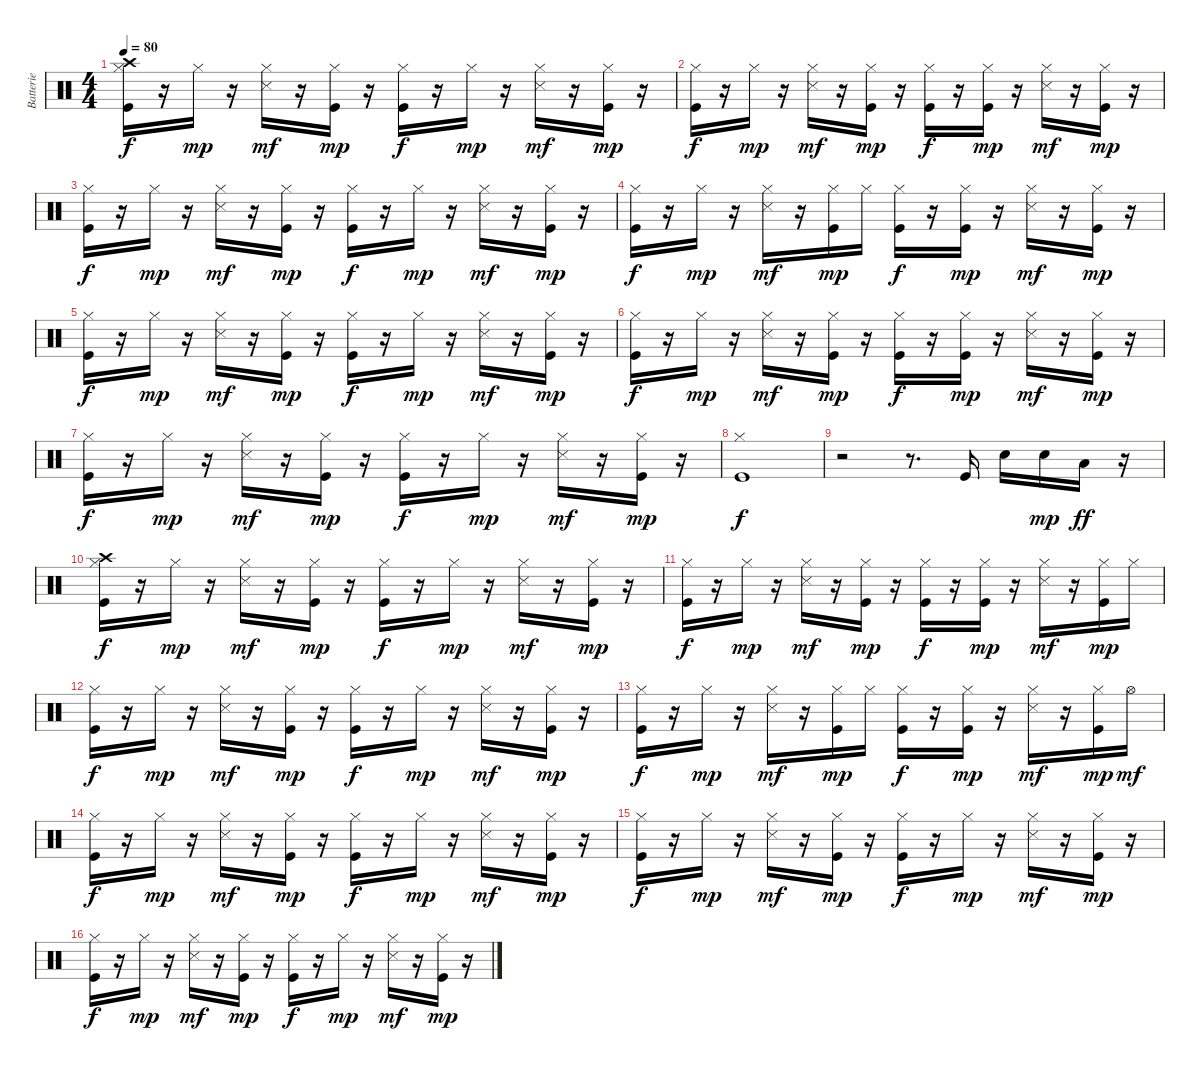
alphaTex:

\track ("Batterie" "Batterie") {instrument percussion}
\staff {score}
\articulation defaults
\ts (4 4)
\tempo 80
\clef neutral
\ks c
("Kick (hit)" "Hi-Hat (closed)" "Crash high (hit)").16{dy f} r.16 "Hi-Hat (closed)".16{dy mp} r.16 ("Hi-Hat (closed)" "Snare (side stick) 3").16{dy mf} r.16 ("Kick (hit)" "Hi-Hat (closed)").16{dy mp} r.16 ("Kick (hit)" "Hi-Hat (closed)").16{dy f} r.16 "Hi-Hat (closed)".16{dy mp} r.16 ("Hi-Hat (closed)" "Snare (side stick) 3").16{dy mf} r.16 ("Kick (hit)" "Hi-Hat (closed)").16{dy mp} r.16 |
("Kick (hit)" "Hi-Hat (closed)").16{dy f} r.16 "Hi-Hat (closed)".16{dy mp} r.16 ("Hi-Hat (closed)" "Snare (side stick) 3").16{dy mf} r.16 ("Kick (hit)" "Hi-Hat (closed)").16{dy mp} r.16 ("Kick (hit)" "Hi-Hat (closed)").16{dy f} r.16 ("Kick (hit)" "Hi-Hat (closed)").16{dy mp} r.16 ("Hi-Hat (closed)" "Snare (side stick) 3").16{dy mf} r.16 ("Kick (hit)" "Hi-Hat (closed)").16{dy mp} r.16 |
("Kick (hit)" "Hi-Hat (closed)").16{dy f} r.16 "Hi-Hat (closed)".16{dy mp} r.16 ("Hi-Hat (closed)" "Snare (side stick) 3").16{dy mf} r.16 ("Kick (hit)" "Hi-Hat (closed)").16{dy mp} r.16 ("Kick (hit)" "Hi-Hat (closed)").16{dy f} r.16 "Hi-Hat (closed)".16{dy mp} r.16 ("Hi-Hat (closed)" "Snare (side stick) 3").16{dy mf} r.16 ("Kick (hit)" "Hi-Hat (closed)").16{dy mp} r.16 |
("Kick (hit)" "Hi-Hat (closed)").16{dy f} r.16 "Hi-Hat (closed)".16{dy mp} r.16 ("Hi-Hat (closed)" "Snare (side stick) 3").16{dy mf} r.16 ("Kick (hit)" "Hi-Hat (closed)").16{dy mp} "Hi-Hat (closed)".16 ("Kick (hit)" "Hi-Hat (closed)").16{dy f} r.16 ("Kick (hit)" "Hi-Hat (closed)").16{dy mp} r.16 ("Hi-Hat (closed)" "Snare (side stick) 3").16{dy mf} r.16 ("Kick (hit)" "Hi-Hat (closed)").16{dy mp} r.16 |
("Kick (hit)" "Hi-Hat (closed)").16{dy f} r.16 "Hi-Hat (closed)".16{dy mp} r.16 ("Hi-Hat (closed)" "Snare (side stick) 3").16{dy mf} r.16 ("Kick (hit)" "Hi-Hat (closed)").16{dy mp} r.16 ("Kick (hit)" "Hi-Hat (closed)").16{dy f} r.16 "Hi-Hat (closed)".16{dy mp} r.16 ("Hi-Hat (closed)" "Snare (side stick) 3").16{dy mf} r.16 ("Kick (hit)" "Hi-Hat (closed)").16{dy mp} r.16 |
("Kick (hit)" "Hi-Hat (closed)").16{dy f} r.16 "Hi-Hat (closed)".16{dy mp} r.16 ("Hi-Hat (closed)" "Snare (side stick) 3").16{dy mf} r.16 ("Kick (hit)" "Hi-Hat (closed)").16{dy mp} r.16 ("Kick (hit)" "Hi-Hat (closed)").16{dy f} r.16 ("Kick (hit)" "Hi-Hat (closed)").16{dy mp} r.16 ("Hi-Hat (closed)" "Snare (side stick) 3").16{dy mf} r.16 ("Kick (hit)" "Hi-Hat (closed)").16{dy mp} r.16 |
("Kick (hit)" "Hi-Hat (closed)").16{dy f} r.16 "Hi-Hat (closed)".16{dy mp} r.16 ("Hi-Hat (closed)" "Snare (side stick) 3").16{dy mf} r.16 ("Kick (hit)" "Hi-Hat (closed)").16{dy mp} r.16 ("Kick (hit)" "Hi-Hat (closed)").16{dy f} r.16 "Hi-Hat (closed)".16{dy mp} r.16 ("Hi-Hat (closed)" "Snare (side stick) 3").16{dy mf} r.16 ("Kick (hit)" "Hi-Hat (closed)").16{dy mp} r.16 |
("Kick (hit)" "Hi-Hat (closed)").1{dy f} |
r.2 r.8{d} "Kick (hit)".16 "Snare (hit) 2".16 "Snare (hit) 2".16{dy mp} "Low Floor Tom (hit)".16{dy ff} r.16 |
("Kick (hit)" "Hi-Hat (closed)" "Crash high (hit)").16{dy f} r.16 "Hi-Hat (closed)".16{dy mp} r.16 ("Hi-Hat (closed)" "Snare (side stick) 3").16{dy mf} r.16 ("Kick (hit)" "Hi-Hat (closed)").16{dy mp} r.16 ("Kick (hit)" "Hi-Hat (closed)").16{dy f} r.16 "Hi-Hat (closed)".16{dy mp} r.16 ("Hi-Hat (closed)" "Snare (side stick) 3").16{dy mf} r.16 ("Kick (hit)" "Hi-Hat (closed)").16{dy mp} r.16 |
("Kick (hit)" "Hi-Hat (closed)").16{dy f} r.16 "Hi-Hat (closed)".16{dy mp} r.16 ("Hi-Hat (closed)" "Snare (side stick) 3").16{dy mf} r.16 ("Kick (hit)" "Hi-Hat (closed)").16{dy mp} r.16 ("Kick (hit)" "Hi-Hat (closed)").16{dy f} r.16 ("Kick (hit)" "Hi-Hat (closed)").16{dy mp} r.16 ("Hi-Hat (closed)" "Snare (side stick) 3").16{dy mf} r.16 ("Kick (hit)" "Hi-Hat (closed)").16{dy mp} "Hi-Hat (closed)".16 |
("Kick (hit)" "Hi-Hat (closed)").16{dy f} r.16 "Hi-Hat (closed)".16{dy mp} r.16 ("Hi-Hat (closed)" "Snare (side stick) 3").16{dy mf} r.16 ("Kick (hit)" "Hi-Hat (closed)").16{dy mp} r.16 ("Kick (hit)" "Hi-Hat (closed)").16{dy f} r.16 "Hi-Hat (closed)".16{dy mp} r.16 ("Hi-Hat (closed)" "Snare (side stick) 3").16{dy mf} r.16 ("Kick (hit)" "Hi-Hat (closed)").16{dy mp} r.16 |
("Kick (hit)" "Hi-Hat (closed)").16{dy f} r.16 "Hi-Hat (closed)".16{dy mp} r.16 ("Hi-Hat (closed)" "Snare (side stick) 3").16{dy mf} r.16 ("Kick (hit)" "Hi-Hat (closed)").16{dy mp} "Hi-Hat (closed)".16 ("Kick (hit)" "Hi-Hat (closed)").16{dy f} r.16 ("Kick (hit)" "Hi-Hat (closed)").16{dy mp} r.16 ("Hi-Hat (closed)" "Snare (side stick) 3").16{dy mf} r.16 ("Kick (hit)" "Hi-Hat (closed)").16{dy mp} "Hi-Hat (open)".16{dy mf} |
("Kick (hit)" "Hi-Hat (closed)").16{dy f} r.16 "Hi-Hat (closed)".16{dy mp} r.16 ("Hi-Hat (closed)" "Snare (side stick) 3").16{dy mf} r.16 ("Kick (hit)" "Hi-Hat (closed)").16{dy mp} r.16 ("Kick (hit)" "Hi-Hat (closed)").16{dy f} r.16 "Hi-Hat (closed)".16{dy mp} r.16 ("Hi-Hat (closed)" "Snare (side stick) 3").16{dy mf} r.16 ("Kick (hit)" "Hi-Hat (closed)").16{dy mp} r.16 |
("Kick (hit)" "Hi-Hat (closed)").16{dy f} r.16 "Hi-Hat (closed)".16{dy mp} r.16 ("Hi-Hat (closed)" "Snare (side stick) 3").16{dy mf} r.16 ("Kick (hit)" "Hi-Hat (closed)").16{dy mp} r.16 ("Kick (hit)" "Hi-Hat (closed)").16{dy f} r.16 "Hi-Hat (closed)".16{dy mp} r.16 ("Hi-Hat (closed)" "Snare (side stick) 3").16{dy mf} r.16 ("Kick (hit)" "Hi-Hat (closed)").16{dy mp} r.16 |
("Kick (hit)" "Hi-Hat (closed)").16{dy f} r.16 "Hi-Hat (closed)".16{dy mp} r.16 ("Hi-Hat (closed)" "Snare (side stick) 3").16{dy mf} r.16 ("Kick (hit)" "Hi-Hat (closed)").16{dy mp} r.16 ("Kick (hit)" "Hi-Hat (closed)").16{dy f} r.16 "Hi-Hat (closed)".16{dy mp} r.16 ("Hi-Hat (closed)" "Snare (side stick) 3").16{dy mf} r.16 ("Kick (hit)" "Hi-Hat (closed)").16{dy mp} r.16
